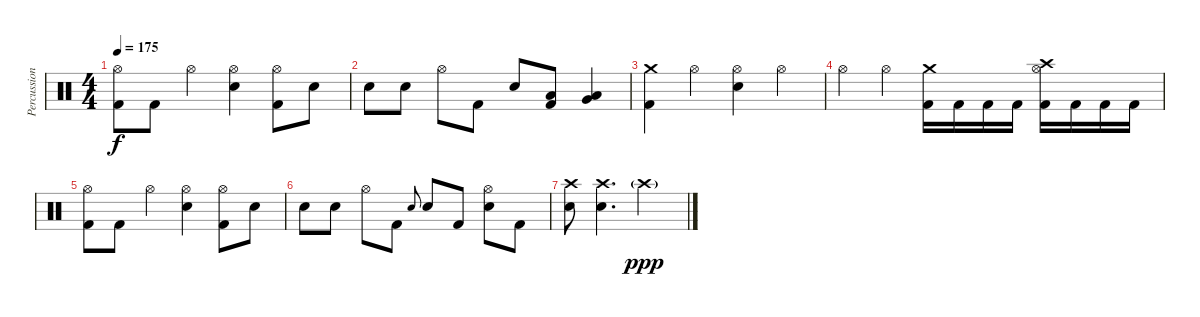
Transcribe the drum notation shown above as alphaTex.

\track ("Percussion" "Percussion") {instrument percussion}
\staff {score}
\articulation defaults
\ts (4 4)
\tempo 175
\clef neutral
\ks c
("Hi-Hat (open)" "Kick (hit) 2").8{dy f} "Kick (hit) 2".8 "Hi-Hat (open)".4 ("Hi-Hat (open)" "Electric Snare (hit)").4 ("Hi-Hat (open)" "Kick (hit) 2").8 "Electric Snare (hit)".8 |
"Electric Snare (hit)".8 "Electric Snare (hit)".8 "Hi-Hat (open)".8 "Kick (hit) 2".8 "Electric Snare (hit)".8 ("Low Tom (hit)" "Kick (hit) 2").8 ("Low Tom (hit)" "Very Low Tom (hit)").4 |
("Crash medium (hit)" "Kick (hit) 2").4 "Hi-Hat (open)".4 ("Hi-Hat (open)" "Electric Snare (hit)").4 "Hi-Hat (open)".4 |
"Hi-Hat (open)".4 "Hi-Hat (open)".4 ("Crash medium (hit)" "Kick (hit) 2").16 "Kick (hit) 2".16 "Kick (hit) 2".16 "Kick (hit) 2".16 ("Crash high (hit)" "Hi-Hat (open)" "Kick (hit) 2").16 "Kick (hit) 2".16 "Kick (hit) 2".16 "Kick (hit) 2".16 |
("Hi-Hat (open)" "Kick (hit) 2").8 "Kick (hit) 2".8 "Hi-Hat (open)".4 ("Hi-Hat (open)" "Electric Snare (hit)").4 ("Hi-Hat (open)" "Kick (hit) 2").8 "Electric Snare (hit)".8 |
"Electric Snare (hit)".8 "Electric Snare (hit)".8 "Hi-Hat (open)".8 "Kick (hit) 2".8 "Electric Snare (hit)".8{gr onbeat} "Electric Snare (hit)".8 "Kick (hit) 2".8 ("Hi-Hat (open)" "Electric Snare (hit)").8 "Kick (hit) 2".8 |
("Crash high (hit)" "Electric Snare (hit)").8 ("Crash high (hit)" "Electric Snare (hit)").4{d} "Crash high (hit)"{g}.2{dy ppp}
